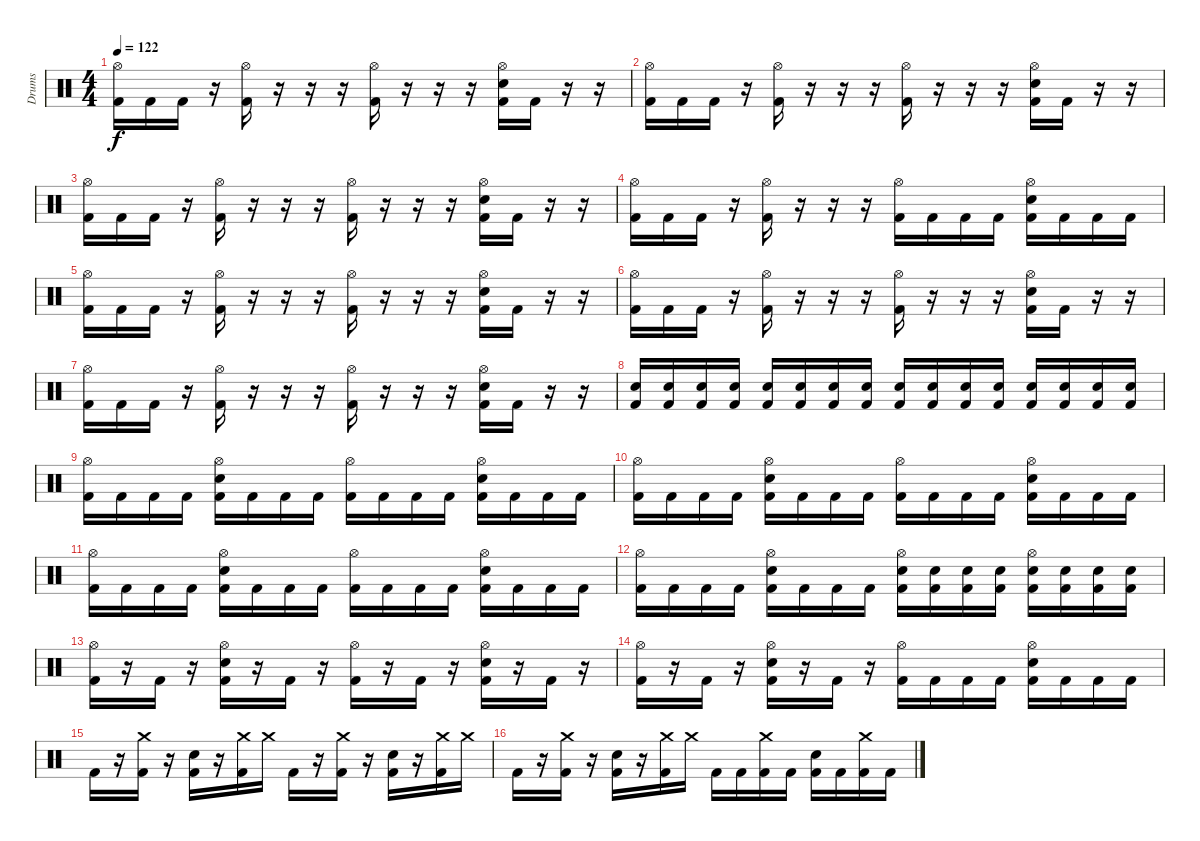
\track ("Drums" "Drums") {instrument percussion}
\staff {score}
\articulation defaults
\ts (4 4)
\tempo 122
\clef neutral
\ks c
("Hi-Hat (open)" "Kick (hit) 2").16{dy f} "Kick (hit) 2".16 "Kick (hit) 2".16 r.16 ("Hi-Hat (open)" "Kick (hit) 2").16 r.16 r.16 r.16 ("Hi-Hat (open)" "Kick (hit) 2").16 r.16 r.16 r.16 ("Hi-Hat (open)" "Snare (hit) 2" "Kick (hit) 2").16 "Kick (hit) 2".16 r.16 r.16 |
("Hi-Hat (open)" "Kick (hit) 2").16 "Kick (hit) 2".16 "Kick (hit) 2".16 r.16 ("Hi-Hat (open)" "Kick (hit) 2").16 r.16 r.16 r.16 ("Hi-Hat (open)" "Kick (hit) 2").16 r.16 r.16 r.16 ("Hi-Hat (open)" "Snare (hit) 2" "Kick (hit) 2").16 "Kick (hit) 2".16 r.16 r.16 |
("Hi-Hat (open)" "Kick (hit) 2").16 "Kick (hit) 2".16 "Kick (hit) 2".16 r.16 ("Hi-Hat (open)" "Kick (hit) 2").16 r.16 r.16 r.16 ("Hi-Hat (open)" "Kick (hit) 2").16 r.16 r.16 r.16 ("Hi-Hat (open)" "Snare (hit) 2" "Kick (hit) 2").16 "Kick (hit) 2".16 r.16 r.16 |
("Hi-Hat (open)" "Kick (hit) 2").16 "Kick (hit) 2".16 "Kick (hit) 2".16 r.16 ("Hi-Hat (open)" "Kick (hit) 2").16 r.16 r.16 r.16 ("Hi-Hat (open)" "Kick (hit) 2").16 "Kick (hit) 2".16 "Kick (hit) 2".16 "Kick (hit) 2".16 ("Hi-Hat (open)" "Snare (hit) 2" "Kick (hit) 2").16 "Kick (hit) 2".16 "Kick (hit) 2".16 "Kick (hit) 2".16 |
("Hi-Hat (open)" "Kick (hit) 2").16 "Kick (hit) 2".16 "Kick (hit) 2".16 r.16 ("Hi-Hat (open)" "Kick (hit) 2").16 r.16 r.16 r.16 ("Hi-Hat (open)" "Kick (hit) 2").16 r.16 r.16 r.16 ("Hi-Hat (open)" "Snare (hit) 2" "Kick (hit) 2").16 "Kick (hit) 2".16 r.16 r.16 |
("Hi-Hat (open)" "Kick (hit) 2").16 "Kick (hit) 2".16 "Kick (hit) 2".16 r.16 ("Hi-Hat (open)" "Kick (hit) 2").16 r.16 r.16 r.16 ("Hi-Hat (open)" "Kick (hit) 2").16 r.16 r.16 r.16 ("Hi-Hat (open)" "Snare (hit) 2" "Kick (hit) 2").16 "Kick (hit) 2".16 r.16 r.16 |
("Hi-Hat (open)" "Kick (hit) 2").16 "Kick (hit) 2".16 "Kick (hit) 2".16 r.16 ("Hi-Hat (open)" "Kick (hit) 2").16 r.16 r.16 r.16 ("Hi-Hat (open)" "Kick (hit) 2").16 r.16 r.16 r.16 ("Hi-Hat (open)" "Snare (hit) 2" "Kick (hit) 2").16 "Kick (hit) 2".16 r.16 r.16 |
("Snare (hit) 2" "Kick (hit) 2").16 ("Snare (hit) 2" "Kick (hit) 2").16 ("Snare (hit) 2" "Kick (hit) 2").16 ("Snare (hit) 2" "Kick (hit) 2").16 ("Snare (hit) 2" "Kick (hit) 2").16 ("Snare (hit) 2" "Kick (hit) 2").16 ("Snare (hit) 2" "Kick (hit) 2").16 ("Snare (hit) 2" "Kick (hit) 2").16 ("Snare (hit) 2" "Kick (hit) 2").16 ("Snare (hit) 2" "Kick (hit) 2").16 ("Snare (hit) 2" "Kick (hit) 2").16 ("Snare (hit) 2" "Kick (hit) 2").16 ("Snare (hit) 2" "Kick (hit) 2").16 ("Snare (hit) 2" "Kick (hit) 2").16 ("Snare (hit) 2" "Kick (hit) 2").16 ("Snare (hit) 2" "Kick (hit) 2").16 |
("Hi-Hat (open)" "Kick (hit) 2").16 "Kick (hit) 2".16 "Kick (hit) 2".16 "Kick (hit) 2".16 ("Hi-Hat (open)" "Snare (hit) 2" "Kick (hit) 2").16 "Kick (hit) 2".16 "Kick (hit) 2".16 "Kick (hit) 2".16 ("Hi-Hat (open)" "Kick (hit) 2").16 "Kick (hit) 2".16 "Kick (hit) 2".16 "Kick (hit) 2".16 ("Hi-Hat (open)" "Snare (hit) 2" "Kick (hit) 2").16 "Kick (hit) 2".16 "Kick (hit) 2".16 "Kick (hit) 2".16 |
("Hi-Hat (open)" "Kick (hit) 2").16 "Kick (hit) 2".16 "Kick (hit) 2".16 "Kick (hit) 2".16 ("Hi-Hat (open)" "Snare (hit) 2" "Kick (hit) 2").16 "Kick (hit) 2".16 "Kick (hit) 2".16 "Kick (hit) 2".16 ("Hi-Hat (open)" "Kick (hit) 2").16 "Kick (hit) 2".16 "Kick (hit) 2".16 "Kick (hit) 2".16 ("Hi-Hat (open)" "Snare (hit) 2" "Kick (hit) 2").16 "Kick (hit) 2".16 "Kick (hit) 2".16 "Kick (hit) 2".16 |
("Hi-Hat (open)" "Kick (hit) 2").16 "Kick (hit) 2".16 "Kick (hit) 2".16 "Kick (hit) 2".16 ("Hi-Hat (open)" "Snare (hit) 2" "Kick (hit) 2").16 "Kick (hit) 2".16 "Kick (hit) 2".16 "Kick (hit) 2".16 ("Hi-Hat (open)" "Kick (hit) 2").16 "Kick (hit) 2".16 "Kick (hit) 2".16 "Kick (hit) 2".16 ("Hi-Hat (open)" "Snare (hit) 2" "Kick (hit) 2").16 "Kick (hit) 2".16 "Kick (hit) 2".16 "Kick (hit) 2".16 |
("Hi-Hat (open)" "Kick (hit) 2").16 "Kick (hit) 2".16 "Kick (hit) 2".16 "Kick (hit) 2".16 ("Hi-Hat (open)" "Snare (hit) 2" "Kick (hit) 2").16 "Kick (hit) 2".16 "Kick (hit) 2".16 "Kick (hit) 2".16 ("Hi-Hat (open)" "Snare (hit) 2" "Kick (hit) 2").16 ("Snare (hit) 2" "Kick (hit) 2").16 ("Snare (hit) 2" "Kick (hit) 2").16 ("Snare (hit) 2" "Kick (hit) 2").16 ("Hi-Hat (open)" "Snare (hit) 2" "Kick (hit) 2").16 ("Snare (hit) 2" "Kick (hit) 2").16 ("Snare (hit) 2" "Kick (hit) 2").16 ("Snare (hit) 2" "Kick (hit) 2").16 |
("Hi-Hat (open)" "Kick (hit) 2").16 r.16 "Kick (hit) 2".16 r.16 ("Hi-Hat (open)" "Snare (hit) 2" "Kick (hit) 2").16 r.16 "Kick (hit) 2".16 r.16 ("Hi-Hat (open)" "Kick (hit) 2").16 r.16 "Kick (hit) 2".16 r.16 ("Hi-Hat (open)" "Snare (hit) 2" "Kick (hit) 2").16 r.16 "Kick (hit) 2".16 r.16 |
("Hi-Hat (open)" "Kick (hit) 2").16 r.16 "Kick (hit) 2".16 r.16 ("Hi-Hat (open)" "Snare (hit) 2" "Kick (hit) 2").16 r.16 "Kick (hit) 2".16 r.16 ("Hi-Hat (open)" "Kick (hit) 2").16 "Kick (hit) 2".16 "Kick (hit) 2".16 "Kick (hit) 2".16 ("Hi-Hat (open)" "Snare (hit) 2" "Kick (hit) 2").16 "Kick (hit) 2".16 "Kick (hit) 2".16 "Kick (hit) 2".16 |
"Kick (hit) 2".16 r.16 ("Crash medium (hit)" "Kick (hit) 2").16 r.16 ("Snare (hit) 2" "Kick (hit) 2").16 r.16 ("Crash medium (hit)" "Kick (hit) 2").16 "Crash medium (hit)".16 "Kick (hit) 2".16 r.16 ("Crash medium (hit)" "Kick (hit) 2").16 r.16 ("Snare (hit) 2" "Kick (hit) 2").16 r.16 ("Crash medium (hit)" "Kick (hit) 2").16 "Crash medium (hit)".16 |
"Kick (hit) 2".16 r.16 ("Crash medium (hit)" "Kick (hit) 2").16 r.16 ("Snare (hit) 2" "Kick (hit) 2").16 r.16 ("Crash medium (hit)" "Kick (hit) 2").16 "Crash medium (hit)".16 "Kick (hit) 2".16 "Kick (hit) 2".16 ("Crash medium (hit)" "Kick (hit) 2").16 "Kick (hit) 2".16 ("Snare (hit) 2" "Kick (hit) 2").16 "Kick (hit) 2".16 ("Crash medium (hit)" "Kick (hit) 2").16 "Kick (hit) 2".16
